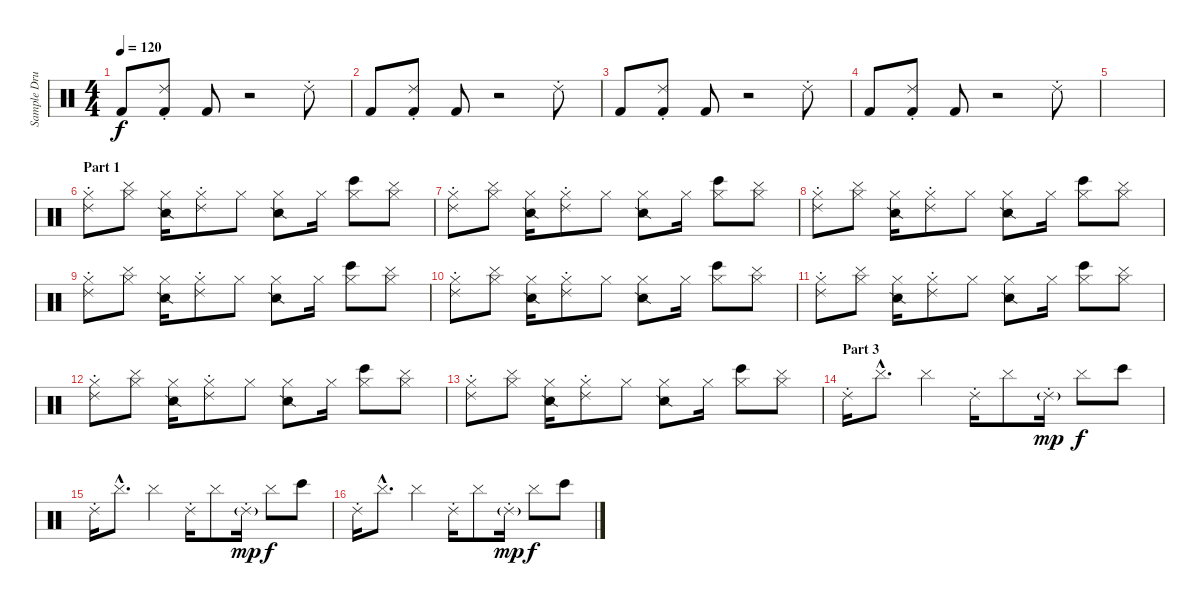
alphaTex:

\track ("Sample Drums" "Sample Dru") {instrument percussion}
\staff {score}
\articulation defaults
\ts (4 4)
\tempo 120
\clef neutral
\ks c "Kick (hit) 2".8{dy f}
("Ride (choke) 2" "Kick (hit) 2").8 "Kick (hit) 2".8 r.2 "Ride (choke) 2".8 |
"Kick (hit) 2".8 ("Ride (choke) 2" "Kick (hit) 2").8 "Kick (hit) 2".8 r.2 "Ride (choke) 2".8 |
"Kick (hit) 2".8 ("Ride (choke) 2" "Kick (hit) 2").8 "Kick (hit) 2".8 r.2 "Ride (choke) 2".8 |
"Kick (hit) 2".8 ("Ride (choke) 2" "Kick (hit) 2").8 "Kick (hit) 2".8 r.2 "Ride (choke) 2".8 |
|
\section ("" "Part 1")
("Hi-Hat (closed)" "Ride (choke) 2").8 ("Hi-Hat (closed)" "Cymbal (hit)").8 ("Hi-Hat (closed)" "Snare (side stick) 2").16 ("Hi-Hat (closed)" "Ride (choke) 2").8 "Hi-Hat (closed)".8 ("Hi-Hat (closed)" "Snare (side stick) 2").8 "Hi-Hat (closed)".16 ("Hi-Hat (closed)" "Bongo High (hit)").8 ("Hi-Hat (closed)" "Cymbal (hit)").8 |
("Hi-Hat (closed)" "Ride (choke) 2").8 ("Hi-Hat (closed)" "Cymbal (hit)").8 ("Hi-Hat (closed)" "Snare (side stick) 2").16 ("Hi-Hat (closed)" "Ride (choke) 2").8 "Hi-Hat (closed)".8 ("Hi-Hat (closed)" "Snare (side stick) 2").8 "Hi-Hat (closed)".16 ("Hi-Hat (closed)" "Bongo High (hit)").8 ("Hi-Hat (closed)" "Cymbal (hit)").8 |
("Hi-Hat (closed)" "Ride (choke) 2").8 ("Hi-Hat (closed)" "Cymbal (hit)").8 ("Hi-Hat (closed)" "Snare (side stick) 2").16 ("Hi-Hat (closed)" "Ride (choke) 2").8 "Hi-Hat (closed)".8 ("Hi-Hat (closed)" "Snare (side stick) 2").8 "Hi-Hat (closed)".16 ("Hi-Hat (closed)" "Bongo High (hit)").8 ("Hi-Hat (closed)" "Cymbal (hit)").8 |
("Hi-Hat (closed)" "Ride (choke) 2").8 ("Hi-Hat (closed)" "Cymbal (hit)").8 ("Hi-Hat (closed)" "Snare (side stick) 2").16 ("Hi-Hat (closed)" "Ride (choke) 2").8 "Hi-Hat (closed)".8 ("Hi-Hat (closed)" "Snare (side stick) 2").8 "Hi-Hat (closed)".16 ("Hi-Hat (closed)" "Bongo High (hit)").8 ("Hi-Hat (closed)" "Cymbal (hit)").8 |
("Hi-Hat (closed)" "Ride (choke) 2").8 ("Hi-Hat (closed)" "Cymbal (hit)").8 ("Hi-Hat (closed)" "Snare (side stick) 2").16 ("Hi-Hat (closed)" "Ride (choke) 2").8 "Hi-Hat (closed)".8 ("Hi-Hat (closed)" "Snare (side stick) 2").8 "Hi-Hat (closed)".16 ("Hi-Hat (closed)" "Bongo High (hit)").8 ("Hi-Hat (closed)" "Cymbal (hit)").8 |
("Hi-Hat (closed)" "Ride (choke) 2").8 ("Hi-Hat (closed)" "Cymbal (hit)").8 ("Hi-Hat (closed)" "Snare (side stick) 2").16 ("Hi-Hat (closed)" "Ride (choke) 2").8 "Hi-Hat (closed)".8 ("Hi-Hat (closed)" "Snare (side stick) 2").8 "Hi-Hat (closed)".16 ("Hi-Hat (closed)" "Bongo High (hit)").8 ("Hi-Hat (closed)" "Cymbal (hit)").8 |
("Hi-Hat (closed)" "Ride (choke) 2").8 ("Hi-Hat (closed)" "Cymbal (hit)").8 ("Hi-Hat (closed)" "Snare (side stick) 2").16 ("Hi-Hat (closed)" "Ride (choke) 2").8 "Hi-Hat (closed)".8 ("Hi-Hat (closed)" "Snare (side stick) 2").8 "Hi-Hat (closed)".16 ("Hi-Hat (closed)" "Bongo High (hit)").8 ("Hi-Hat (closed)" "Cymbal (hit)").8 |
("Hi-Hat (closed)" "Ride (choke) 2").8 ("Hi-Hat (closed)" "Cymbal (hit)").8 ("Hi-Hat (closed)" "Snare (side stick) 2").16 ("Hi-Hat (closed)" "Ride (choke) 2").8 "Hi-Hat (closed)".8 ("Hi-Hat (closed)" "Snare (side stick) 2").8 "Hi-Hat (closed)".16 ("Hi-Hat (closed)" "Bongo High (hit)").8 ("Hi-Hat (closed)" "Cymbal (hit)").8 |
\section ("" "Part 3")
"Ride (choke) 2".16 "Cymbal (hit)"{hac}.8{d} "Cymbal (hit)".4 "Ride (choke) 2".16 "Cymbal (hit)".8 "Ride (choke) 2"{g}.16{dy mp} "Cymbal (hit)".8{dy f} "Bongo High (hit)".8 |
"Ride (choke) 2".16 "Cymbal (hit)"{hac}.8{d} "Cymbal (hit)".4 "Ride (choke) 2".16 "Cymbal (hit)".8 "Ride (choke) 2"{g}.16{dy mp} "Cymbal (hit)".8{dy f} "Bongo High (hit)".8 |
"Ride (choke) 2".16 "Cymbal (hit)"{hac}.8{d} "Cymbal (hit)".4 "Ride (choke) 2".16 "Cymbal (hit)".8 "Ride (choke) 2"{g}.16{dy mp} "Cymbal (hit)".8{dy f} "Bongo High (hit)".8
